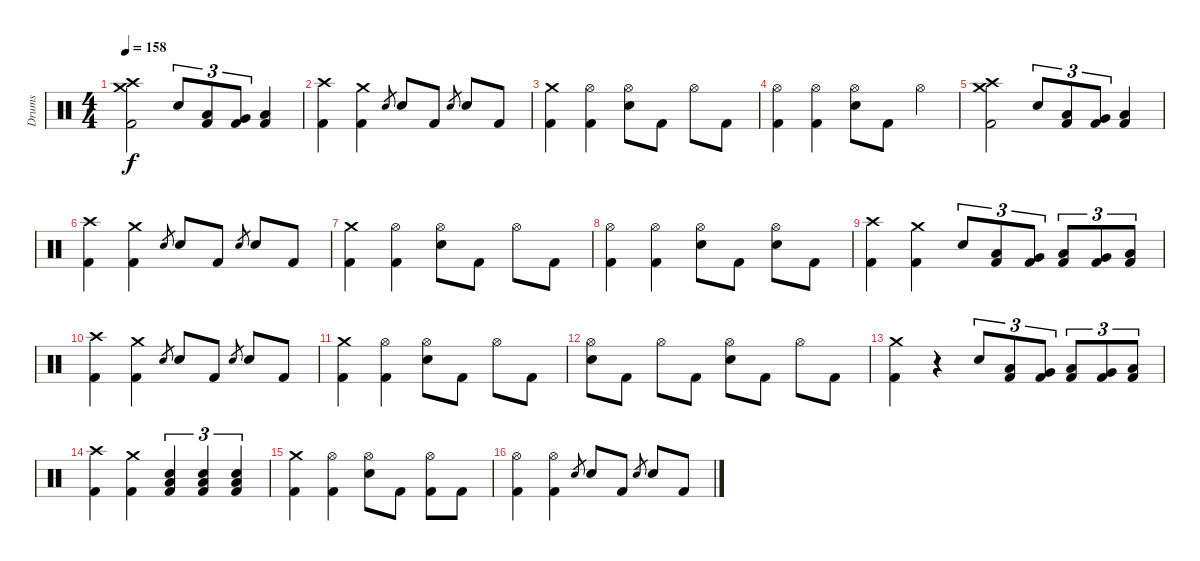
\track ("Drums" "Drums") {instrument percussion}
\staff {score}
\articulation defaults
\ts (4 4)
\tempo 158
\clef neutral
\ks c
("Crash medium (hit)" "Crash high (hit)" "Kick (hit) 2").2{dy f} "Electric Snare (hit)".8{tu (3 2)} ("Low Tom (hit)" "Kick (hit) 2").8{tu (3 2)} ("Very Low Tom (hit)" "Kick (hit) 2").8{tu (3 2)} ("Low Floor Tom (hit)" "Kick (hit) 2").4 |
("Crash high (hit)" "Kick (hit) 2").4 ("Crash medium (hit)" "Kick (hit) 2").4 "Electric Snare (hit)".8{gr} "Electric Snare (hit)".8 "Kick (hit) 2".8 "Electric Snare (hit)".8{gr} "Electric Snare (hit)".8 "Kick (hit) 2".8 |
("Crash medium (hit)" "Kick (hit) 2").4 ("Hi-Hat (open)" "Kick (hit) 2").4 ("Hi-Hat (open)" "Electric Snare (hit)").8 "Kick (hit) 2".8 "Hi-Hat (open)".8 "Kick (hit) 2".8 |
("Hi-Hat (open)" "Kick (hit) 2").4 ("Hi-Hat (open)" "Kick (hit) 2").4 ("Hi-Hat (open)" "Electric Snare (hit)").8 "Kick (hit) 2".8 "Hi-Hat (open)".4 |
("Crash medium (hit)" "Crash high (hit)" "Kick (hit) 2").2 "Electric Snare (hit)".8{tu (3 2)} ("Low Tom (hit)" "Kick (hit) 2").8{tu (3 2)} ("Very Low Tom (hit)" "Kick (hit) 2").8{tu (3 2)} ("Low Floor Tom (hit)" "Kick (hit) 2").4 |
("Crash high (hit)" "Kick (hit) 2").4 ("Crash medium (hit)" "Kick (hit) 2").4 "Electric Snare (hit)".8{gr} "Electric Snare (hit)".8 "Kick (hit) 2".8 "Electric Snare (hit)".8{gr} "Electric Snare (hit)".8 "Kick (hit) 2".8 |
("Crash medium (hit)" "Kick (hit) 2").4 ("Hi-Hat (open)" "Kick (hit) 2").4 ("Hi-Hat (open)" "Electric Snare (hit)").8 "Kick (hit) 2".8 "Hi-Hat (open)".8 "Kick (hit) 2".8 |
("Hi-Hat (open)" "Kick (hit) 2").4 ("Hi-Hat (open)" "Kick (hit) 2").4 ("Hi-Hat (open)" "Electric Snare (hit)").8 "Kick (hit) 2".8 ("Hi-Hat (open)" "Electric Snare (hit)").8 "Kick (hit) 2".8 |
("Crash high (hit)" "Kick (hit) 2").4 ("Crash medium (hit)" "Kick (hit) 2").4 "Electric Snare (hit)".8{tu (3 2)} ("Low Tom (hit)" "Kick (hit) 2").8{tu (3 2)} ("Very Low Tom (hit)" "Kick (hit) 2").8{tu (3 2)} ("Low Tom (hit)" "Kick (hit) 2").8{tu (3 2)} ("Very Low Tom (hit)" "Kick (hit) 2").8{tu (3 2)} ("Low Floor Tom (hit)" "Kick (hit) 2").8{tu (3 2)} |
("Crash high (hit)" "Kick (hit) 2").4 ("Crash medium (hit)" "Kick (hit) 2").4 "Electric Snare (hit)".8{gr} "Electric Snare (hit)".8 "Kick (hit) 2".8 "Electric Snare (hit)".8{gr} "Electric Snare (hit)".8 "Kick (hit) 2".8 |
("Crash medium (hit)" "Kick (hit) 2").4 ("Hi-Hat (open)" "Kick (hit) 2").4 ("Hi-Hat (open)" "Electric Snare (hit)").8 "Kick (hit) 2".8 "Hi-Hat (open)".8 "Kick (hit) 2".8 |
("Hi-Hat (open)" "Electric Snare (hit)").8 "Kick (hit) 2".8 "Hi-Hat (open)".8 "Kick (hit) 2".8 ("Hi-Hat (open)" "Electric Snare (hit)").8 "Kick (hit) 2".8 "Hi-Hat (open)".8 "Kick (hit) 2".8 |
("Crash medium (hit)" "Kick (hit) 2").4 r.4{volume 2} "Electric Snare (hit)".8{tu (3 2) volume 16} ("Low Tom (hit)" "Kick (hit) 2").8{tu (3 2)} ("Very Low Tom (hit)" "Kick (hit) 2").8{tu (3 2)} ("Low Tom (hit)" "Kick (hit) 2").8{tu (3 2)} ("Very Low Tom (hit)" "Kick (hit) 2").8{tu (3 2)} ("Low Floor Tom (hit)" "Kick (hit) 2").8{tu (3 2)} |
("Crash high (hit)" "Kick (hit) 2").4 ("Crash medium (hit)" "Kick (hit) 2").4 ("Low Floor Tom (hit)" "Electric Snare (hit)" "Kick (hit) 2").4{tu (3 2)} ("Low Floor Tom (hit)" "Electric Snare (hit)" "Kick (hit) 2").4{tu (3 2)} ("Low Floor Tom (hit)" "Electric Snare (hit)" "Kick (hit) 2").4{tu (3 2)} |
("Crash medium (hit)" "Kick (hit) 2").4 ("Hi-Hat (open)" "Kick (hit) 2").4 ("Hi-Hat (open)" "Electric Snare (hit)").8 "Kick (hit) 2".8 ("Hi-Hat (open)" "Kick (hit) 2").8 "Kick (hit) 2".8 |
("Hi-Hat (open)" "Kick (hit) 2").4 ("Hi-Hat (open)" "Kick (hit) 2").4 "Electric Snare (hit)".8{gr} "Electric Snare (hit)".8 "Kick (hit) 2".8 "Electric Snare (hit)".8{gr} "Electric Snare (hit)".8 "Kick (hit) 2".8
